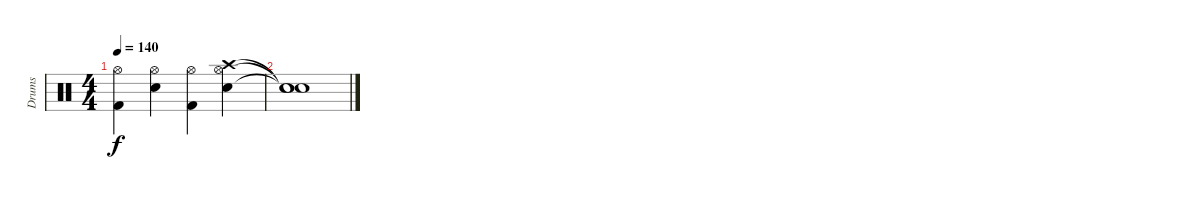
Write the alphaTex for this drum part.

\track ("Drums" "Drums") {instrument percussion}
\staff {score}
\articulation defaults
\ts (4 4)
\tempo 140
\clef neutral
\ks c
("Hi-Hat (open)" "Kick (hit) 2").4{dy f} ("Hi-Hat (open)" "Electric Snare (hit)").4 ("Hi-Hat (open)" "Kick (hit) 2").4 ("Crash high (hit)" "Hi-Hat (open)" "Electric Snare (hit)").4 |
("Snare (hit)"{t} "Snare (hit)"{t} "Snare (hit)"{t}).1
